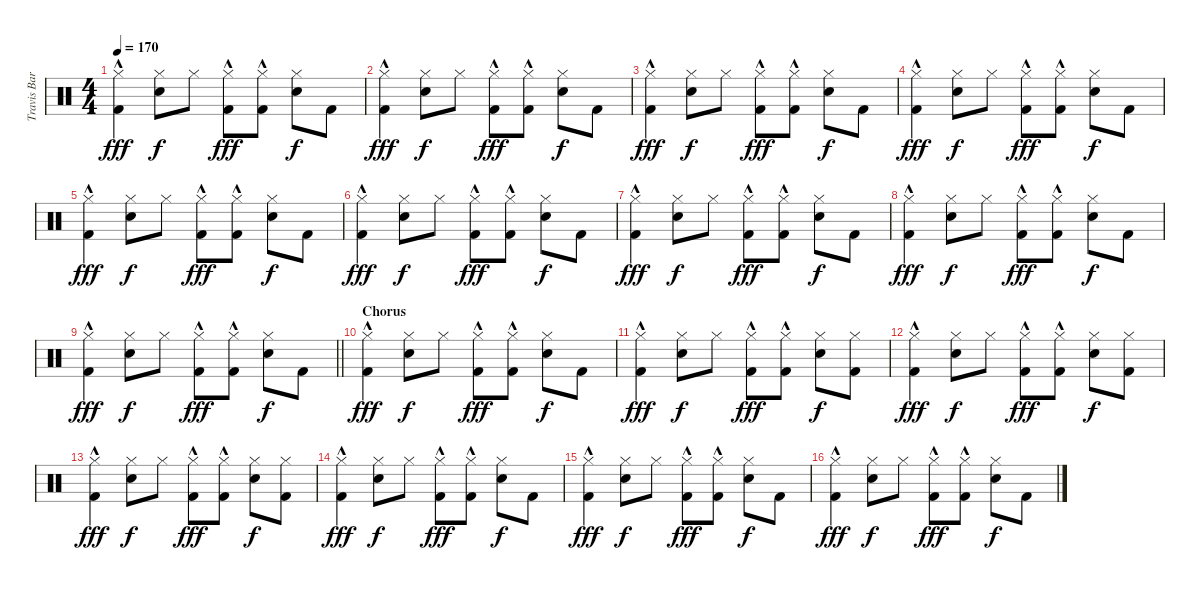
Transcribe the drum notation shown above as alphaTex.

\track ("Travis Barker" "Travis Bar") {instrument percussion}
\staff {score}
\articulation defaults
\ts (4 4)
\tempo 170
\clef neutral
\ks c
("Hi-Hat (closed)" "Kick (hit) 2"{hac}).4{dy fff} ("Hi-Hat (closed)" "Snare (hit) 2").8{dy f} "Hi-Hat (closed)".8 ("Hi-Hat (closed)" "Kick (hit) 2"{hac}).8{dy fff} ("Hi-Hat (closed)" "Kick (hit) 2"{hac}).8 ("Hi-Hat (closed)" "Snare (hit) 2").8{dy f} "Kick (hit) 2".8 |
("Hi-Hat (closed)" "Kick (hit) 2"{hac}).4{dy fff} ("Hi-Hat (closed)" "Snare (hit) 2").8{dy f} "Hi-Hat (closed)".8 ("Hi-Hat (closed)" "Kick (hit) 2"{hac}).8{dy fff} ("Hi-Hat (closed)" "Kick (hit) 2"{hac}).8 ("Hi-Hat (closed)" "Snare (hit) 2").8{dy f} "Kick (hit) 2".8 |
("Hi-Hat (closed)" "Kick (hit) 2"{hac}).4{dy fff} ("Hi-Hat (closed)" "Snare (hit) 2").8{dy f} "Hi-Hat (closed)".8 ("Hi-Hat (closed)" "Kick (hit) 2"{hac}).8{dy fff} ("Hi-Hat (closed)" "Kick (hit) 2"{hac}).8 ("Hi-Hat (closed)" "Snare (hit) 2").8{dy f} "Kick (hit) 2".8 |
("Hi-Hat (closed)" "Kick (hit) 2"{hac}).4{dy fff} ("Hi-Hat (closed)" "Snare (hit) 2").8{dy f} "Hi-Hat (closed)".8 ("Hi-Hat (closed)" "Kick (hit) 2"{hac}).8{dy fff} ("Hi-Hat (closed)" "Kick (hit) 2"{hac}).8 ("Hi-Hat (closed)" "Snare (hit) 2").8{dy f} "Kick (hit) 2".8 |
("Hi-Hat (closed)" "Kick (hit) 2"{hac}).4{dy fff} ("Hi-Hat (closed)" "Snare (hit) 2").8{dy f} "Hi-Hat (closed)".8 ("Hi-Hat (closed)" "Kick (hit) 2"{hac}).8{dy fff} ("Hi-Hat (closed)" "Kick (hit) 2"{hac}).8 ("Hi-Hat (closed)" "Snare (hit) 2").8{dy f} "Kick (hit) 2".8 |
("Hi-Hat (closed)" "Kick (hit) 2"{hac}).4{dy fff} ("Hi-Hat (closed)" "Snare (hit) 2").8{dy f} "Hi-Hat (closed)".8 ("Hi-Hat (closed)" "Kick (hit) 2"{hac}).8{dy fff} ("Hi-Hat (closed)" "Kick (hit) 2"{hac}).8 ("Hi-Hat (closed)" "Snare (hit) 2").8{dy f} "Kick (hit) 2".8 |
("Hi-Hat (closed)" "Kick (hit) 2"{hac}).4{dy fff} ("Hi-Hat (closed)" "Snare (hit) 2").8{dy f} "Hi-Hat (closed)".8 ("Hi-Hat (closed)" "Kick (hit) 2"{hac}).8{dy fff} ("Hi-Hat (closed)" "Kick (hit) 2"{hac}).8 ("Hi-Hat (closed)" "Snare (hit) 2").8{dy f} "Kick (hit) 2".8 |
("Hi-Hat (closed)" "Kick (hit) 2"{hac}).4{dy fff} ("Hi-Hat (closed)" "Snare (hit) 2").8{dy f} "Hi-Hat (closed)".8 ("Hi-Hat (closed)" "Kick (hit) 2"{hac}).8{dy fff} ("Hi-Hat (closed)" "Kick (hit) 2"{hac}).8 ("Hi-Hat (closed)" "Snare (hit) 2").8{dy f} "Kick (hit) 2".8 |
\barLineRight lightlight
("Hi-Hat (closed)" "Kick (hit) 2"{hac}).4{dy fff} ("Hi-Hat (closed)" "Snare (hit) 2").8{dy f} "Hi-Hat (closed)".8 ("Hi-Hat (closed)" "Kick (hit) 2"{hac}).8{dy fff} ("Hi-Hat (closed)" "Kick (hit) 2"{hac}).8 ("Hi-Hat (closed)" "Snare (hit) 2").8{dy f} "Kick (hit) 2".8 |
\section ("" "Chorus")
("Hi-Hat (closed)" "Kick (hit) 2"{hac}).4{dy fff} ("Hi-Hat (closed)" "Snare (hit) 2").8{dy f} "Hi-Hat (closed)".8 ("Hi-Hat (closed)" "Kick (hit) 2"{hac}).8{dy fff} ("Hi-Hat (closed)" "Kick (hit) 2"{hac}).8 ("Hi-Hat (closed)" "Snare (hit) 2").8{dy f} "Kick (hit) 2".8 |
("Hi-Hat (closed)" "Kick (hit) 2"{hac}).4{dy fff} ("Hi-Hat (closed)" "Snare (hit) 2").8{dy f} "Hi-Hat (closed)".8 ("Hi-Hat (closed)" "Kick (hit) 2"{hac}).8{dy fff} ("Hi-Hat (closed)" "Kick (hit) 2"{hac}).8 ("Hi-Hat (closed)" "Snare (hit) 2").8{dy f} ("Hi-Hat (closed)" "Kick (hit) 2").8 |
("Hi-Hat (closed)" "Kick (hit) 2"{hac}).4{dy fff} ("Hi-Hat (closed)" "Snare (hit) 2").8{dy f} "Hi-Hat (closed)".8 ("Hi-Hat (closed)" "Kick (hit) 2"{hac}).8{dy fff} ("Hi-Hat (closed)" "Kick (hit) 2"{hac}).8 ("Hi-Hat (closed)" "Snare (hit) 2").8{dy f} ("Hi-Hat (closed)" "Kick (hit) 2").8 |
("Hi-Hat (closed)" "Kick (hit) 2"{hac}).4{dy fff} ("Hi-Hat (closed)" "Snare (hit) 2").8{dy f} "Hi-Hat (closed)".8 ("Hi-Hat (closed)" "Kick (hit) 2"{hac}).8{dy fff} ("Hi-Hat (closed)" "Kick (hit) 2"{hac}).8 ("Hi-Hat (closed)" "Snare (hit) 2").8{dy f} ("Hi-Hat (closed)" "Kick (hit) 2").8 |
("Hi-Hat (closed)" "Kick (hit) 2"{hac}).4{dy fff} ("Hi-Hat (closed)" "Snare (hit) 2").8{dy f} "Hi-Hat (closed)".8 ("Hi-Hat (closed)" "Kick (hit) 2"{hac}).8{dy fff} ("Hi-Hat (closed)" "Kick (hit) 2"{hac}).8 ("Hi-Hat (closed)" "Snare (hit) 2").8{dy f} "Kick (hit) 2".8 |
("Hi-Hat (closed)" "Kick (hit) 2"{hac}).4{dy fff} ("Hi-Hat (closed)" "Snare (hit) 2").8{dy f} "Hi-Hat (closed)".8 ("Hi-Hat (closed)" "Kick (hit) 2"{hac}).8{dy fff} ("Hi-Hat (closed)" "Kick (hit) 2"{hac}).8 ("Hi-Hat (closed)" "Snare (hit) 2").8{dy f} "Kick (hit) 2".8 |
("Hi-Hat (closed)" "Kick (hit) 2"{hac}).4{dy fff} ("Hi-Hat (closed)" "Snare (hit) 2").8{dy f} "Hi-Hat (closed)".8 ("Hi-Hat (closed)" "Kick (hit) 2"{hac}).8{dy fff} ("Hi-Hat (closed)" "Kick (hit) 2"{hac}).8 ("Hi-Hat (closed)" "Snare (hit) 2").8{dy f} "Kick (hit) 2".8
